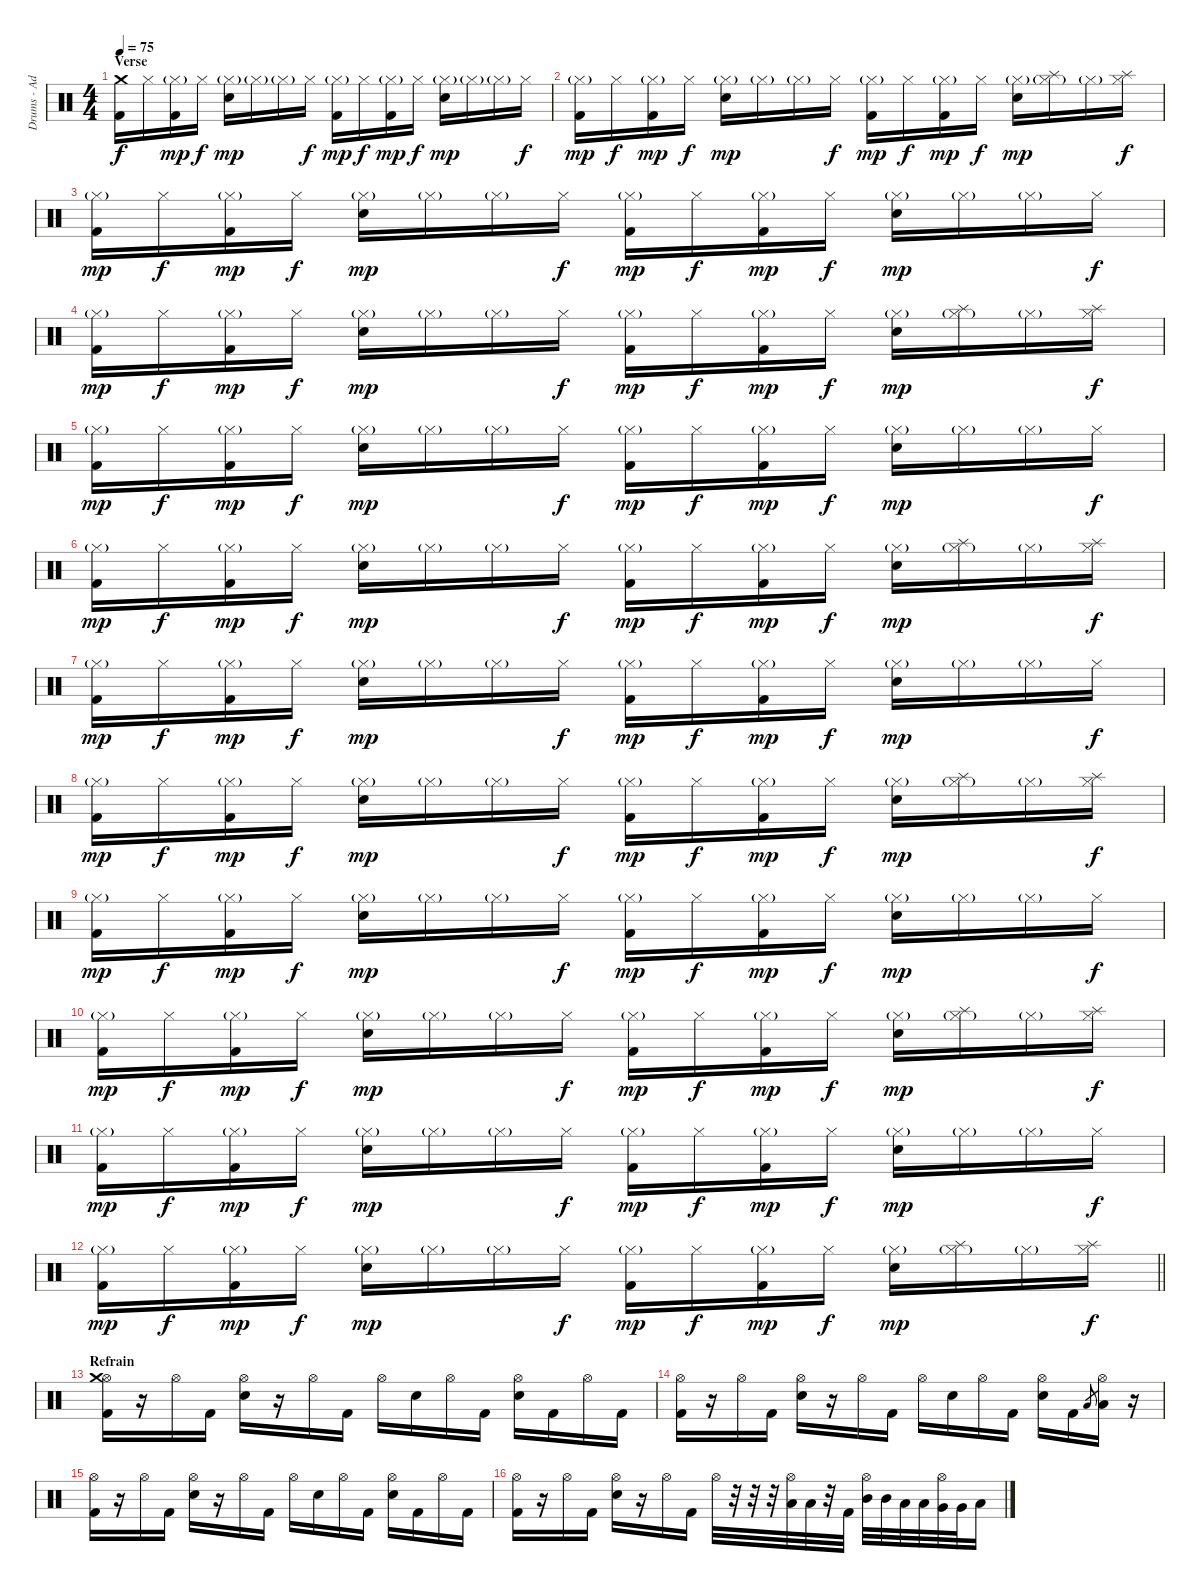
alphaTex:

\track ("Drums - Adrian Robinson" "Drums - Ad") {instrument percussion}
\staff {score}
\articulation defaults
\ts (4 4)
\section ("" "Verse")
\tempo 75
\clef neutral
\ks c
("Crash medium (hit)" "Kick (hit) 2").16{dy f} "Hi-Hat (closed)".16 ("Hi-Hat (closed)"{g} "Kick (hit) 2").16{dy mp} "Hi-Hat (closed)".16{dy f} ("Hi-Hat (closed)"{g} "Electric Snare (hit)").16{dy mp} "Hi-Hat (closed)"{g}.16 "Hi-Hat (closed)"{g}.16 "Hi-Hat (closed)".16{dy f} ("Hi-Hat (closed)"{g} "Kick (hit) 2").16{dy mp} "Hi-Hat (closed)".16{dy f} ("Hi-Hat (closed)"{g} "Kick (hit) 2").16{dy mp} "Hi-Hat (closed)".16{dy f} ("Hi-Hat (closed)"{g} "Electric Snare (hit)").16{dy mp} "Hi-Hat (closed)"{g}.16 "Hi-Hat (closed)"{g}.16 "Hi-Hat (closed)".16{dy f} |
("Hi-Hat (closed)"{g} "Kick (hit) 2").16{dy mp} "Hi-Hat (closed)".16{dy f} ("Hi-Hat (closed)"{g} "Kick (hit) 2").16{dy mp} "Hi-Hat (closed)".16{dy f} ("Hi-Hat (closed)"{g} "Electric Snare (hit)").16{dy mp} "Hi-Hat (closed)"{g}.16 "Hi-Hat (closed)"{g}.16 "Hi-Hat (closed)".16{dy f} ("Hi-Hat (closed)"{g} "Kick (hit) 2").16{dy mp} "Hi-Hat (closed)".16{dy f} ("Hi-Hat (closed)"{g} "Kick (hit) 2").16{dy mp} "Hi-Hat (closed)".16{dy f} ("Hi-Hat (closed)"{g} "Electric Snare (hit)").16{dy mp} ("Hi-Hat (closed)"{g} "Splash (hit)").16 "Hi-Hat (closed)"{g}.16 ("Hi-Hat (closed)" "Splash (hit)").16{dy f} |
("Hi-Hat (closed)"{g} "Kick (hit) 2").16{dy mp} "Hi-Hat (closed)".16{dy f} ("Hi-Hat (closed)"{g} "Kick (hit) 2").16{dy mp} "Hi-Hat (closed)".16{dy f} ("Hi-Hat (closed)"{g} "Electric Snare (hit)").16{dy mp} "Hi-Hat (closed)"{g}.16 "Hi-Hat (closed)"{g}.16 "Hi-Hat (closed)".16{dy f} ("Hi-Hat (closed)"{g} "Kick (hit) 2").16{dy mp} "Hi-Hat (closed)".16{dy f} ("Hi-Hat (closed)"{g} "Kick (hit) 2").16{dy mp} "Hi-Hat (closed)".16{dy f} ("Hi-Hat (closed)"{g} "Electric Snare (hit)").16{dy mp} "Hi-Hat (closed)"{g}.16 "Hi-Hat (closed)"{g}.16 "Hi-Hat (closed)".16{dy f} |
("Hi-Hat (closed)"{g} "Kick (hit) 2").16{dy mp} "Hi-Hat (closed)".16{dy f} ("Hi-Hat (closed)"{g} "Kick (hit) 2").16{dy mp} "Hi-Hat (closed)".16{dy f} ("Hi-Hat (closed)"{g} "Electric Snare (hit)").16{dy mp} "Hi-Hat (closed)"{g}.16 "Hi-Hat (closed)"{g}.16 "Hi-Hat (closed)".16{dy f} ("Hi-Hat (closed)"{g} "Kick (hit) 2").16{dy mp} "Hi-Hat (closed)".16{dy f} ("Hi-Hat (closed)"{g} "Kick (hit) 2").16{dy mp} "Hi-Hat (closed)".16{dy f} ("Hi-Hat (closed)"{g} "Electric Snare (hit)").16{dy mp} ("Hi-Hat (closed)"{g} "Splash (hit)").16 "Hi-Hat (closed)"{g}.16 ("Hi-Hat (closed)" "Splash (hit)").16{dy f} |
("Hi-Hat (closed)"{g} "Kick (hit) 2").16{dy mp} "Hi-Hat (closed)".16{dy f} ("Hi-Hat (closed)"{g} "Kick (hit) 2").16{dy mp} "Hi-Hat (closed)".16{dy f} ("Hi-Hat (closed)"{g} "Electric Snare (hit)").16{dy mp} "Hi-Hat (closed)"{g}.16 "Hi-Hat (closed)"{g}.16 "Hi-Hat (closed)".16{dy f} ("Hi-Hat (closed)"{g} "Kick (hit) 2").16{dy mp} "Hi-Hat (closed)".16{dy f} ("Hi-Hat (closed)"{g} "Kick (hit) 2").16{dy mp} "Hi-Hat (closed)".16{dy f} ("Hi-Hat (closed)"{g} "Electric Snare (hit)").16{dy mp} "Hi-Hat (closed)"{g}.16 "Hi-Hat (closed)"{g}.16 "Hi-Hat (closed)".16{dy f} |
("Hi-Hat (closed)"{g} "Kick (hit) 2").16{dy mp} "Hi-Hat (closed)".16{dy f} ("Hi-Hat (closed)"{g} "Kick (hit) 2").16{dy mp} "Hi-Hat (closed)".16{dy f} ("Hi-Hat (closed)"{g} "Electric Snare (hit)").16{dy mp} "Hi-Hat (closed)"{g}.16 "Hi-Hat (closed)"{g}.16 "Hi-Hat (closed)".16{dy f} ("Hi-Hat (closed)"{g} "Kick (hit) 2").16{dy mp} "Hi-Hat (closed)".16{dy f} ("Hi-Hat (closed)"{g} "Kick (hit) 2").16{dy mp} "Hi-Hat (closed)".16{dy f} ("Hi-Hat (closed)"{g} "Electric Snare (hit)").16{dy mp} ("Hi-Hat (closed)"{g} "Splash (hit)").16 "Hi-Hat (closed)"{g}.16 ("Hi-Hat (closed)" "Splash (hit)").16{dy f} |
("Hi-Hat (closed)"{g} "Kick (hit) 2").16{dy mp} "Hi-Hat (closed)".16{dy f} ("Hi-Hat (closed)"{g} "Kick (hit) 2").16{dy mp} "Hi-Hat (closed)".16{dy f} ("Hi-Hat (closed)"{g} "Electric Snare (hit)").16{dy mp} "Hi-Hat (closed)"{g}.16 "Hi-Hat (closed)"{g}.16 "Hi-Hat (closed)".16{dy f} ("Hi-Hat (closed)"{g} "Kick (hit) 2").16{dy mp} "Hi-Hat (closed)".16{dy f} ("Hi-Hat (closed)"{g} "Kick (hit) 2").16{dy mp} "Hi-Hat (closed)".16{dy f} ("Hi-Hat (closed)"{g} "Electric Snare (hit)").16{dy mp} "Hi-Hat (closed)"{g}.16 "Hi-Hat (closed)"{g}.16 "Hi-Hat (closed)".16{dy f} |
("Hi-Hat (closed)"{g} "Kick (hit) 2").16{dy mp} "Hi-Hat (closed)".16{dy f} ("Hi-Hat (closed)"{g} "Kick (hit) 2").16{dy mp} "Hi-Hat (closed)".16{dy f} ("Hi-Hat (closed)"{g} "Electric Snare (hit)").16{dy mp} "Hi-Hat (closed)"{g}.16 "Hi-Hat (closed)"{g}.16 "Hi-Hat (closed)".16{dy f} ("Hi-Hat (closed)"{g} "Kick (hit) 2").16{dy mp} "Hi-Hat (closed)".16{dy f} ("Hi-Hat (closed)"{g} "Kick (hit) 2").16{dy mp} "Hi-Hat (closed)".16{dy f} ("Hi-Hat (closed)"{g} "Electric Snare (hit)").16{dy mp} ("Hi-Hat (closed)"{g} "Splash (hit)").16 "Hi-Hat (closed)"{g}.16 ("Hi-Hat (closed)" "Splash (hit)").16{dy f} |
("Hi-Hat (closed)"{g} "Kick (hit) 2").16{dy mp} "Hi-Hat (closed)".16{dy f} ("Hi-Hat (closed)"{g} "Kick (hit) 2").16{dy mp} "Hi-Hat (closed)".16{dy f} ("Hi-Hat (closed)"{g} "Electric Snare (hit)").16{dy mp} "Hi-Hat (closed)"{g}.16 "Hi-Hat (closed)"{g}.16 "Hi-Hat (closed)".16{dy f} ("Hi-Hat (closed)"{g} "Kick (hit) 2").16{dy mp} "Hi-Hat (closed)".16{dy f} ("Hi-Hat (closed)"{g} "Kick (hit) 2").16{dy mp} "Hi-Hat (closed)".16{dy f} ("Hi-Hat (closed)"{g} "Electric Snare (hit)").16{dy mp} "Hi-Hat (closed)"{g}.16 "Hi-Hat (closed)"{g}.16 "Hi-Hat (closed)".16{dy f} |
("Hi-Hat (closed)"{g} "Kick (hit) 2").16{dy mp} "Hi-Hat (closed)".16{dy f} ("Hi-Hat (closed)"{g} "Kick (hit) 2").16{dy mp} "Hi-Hat (closed)".16{dy f} ("Hi-Hat (closed)"{g} "Electric Snare (hit)").16{dy mp} "Hi-Hat (closed)"{g}.16 "Hi-Hat (closed)"{g}.16 "Hi-Hat (closed)".16{dy f} ("Hi-Hat (closed)"{g} "Kick (hit) 2").16{dy mp} "Hi-Hat (closed)".16{dy f} ("Hi-Hat (closed)"{g} "Kick (hit) 2").16{dy mp} "Hi-Hat (closed)".16{dy f} ("Hi-Hat (closed)"{g} "Electric Snare (hit)").16{dy mp} ("Hi-Hat (closed)"{g} "Splash (hit)").16 "Hi-Hat (closed)"{g}.16 ("Hi-Hat (closed)" "Splash (hit)").16{dy f} |
("Hi-Hat (closed)"{g} "Kick (hit) 2").16{dy mp} "Hi-Hat (closed)".16{dy f} ("Hi-Hat (closed)"{g} "Kick (hit) 2").16{dy mp} "Hi-Hat (closed)".16{dy f} ("Hi-Hat (closed)"{g} "Electric Snare (hit)").16{dy mp} "Hi-Hat (closed)"{g}.16 "Hi-Hat (closed)"{g}.16 "Hi-Hat (closed)".16{dy f} ("Hi-Hat (closed)"{g} "Kick (hit) 2").16{dy mp} "Hi-Hat (closed)".16{dy f} ("Hi-Hat (closed)"{g} "Kick (hit) 2").16{dy mp} "Hi-Hat (closed)".16{dy f} ("Hi-Hat (closed)"{g} "Electric Snare (hit)").16{dy mp} "Hi-Hat (closed)"{g}.16 "Hi-Hat (closed)"{g}.16 "Hi-Hat (closed)".16{dy f} |
\barLineRight lightlight
("Hi-Hat (closed)"{g} "Kick (hit) 2").16{dy mp} "Hi-Hat (closed)".16{dy f} ("Hi-Hat (closed)"{g} "Kick (hit) 2").16{dy mp} "Hi-Hat (closed)".16{dy f} ("Hi-Hat (closed)"{g} "Electric Snare (hit)").16{dy mp} "Hi-Hat (closed)"{g}.16 "Hi-Hat (closed)"{g}.16 "Hi-Hat (closed)".16{dy f} ("Hi-Hat (closed)"{g} "Kick (hit) 2").16{dy mp} "Hi-Hat (closed)".16{dy f} ("Hi-Hat (closed)"{g} "Kick (hit) 2").16{dy mp} "Hi-Hat (closed)".16{dy f} ("Hi-Hat (closed)"{g} "Electric Snare (hit)").16{dy mp} ("Hi-Hat (closed)"{g} "Splash (hit)").16 "Hi-Hat (closed)"{g}.16 ("Hi-Hat (closed)" "Splash (hit)").16{dy f} |
\section ("" "Refrain")
("Hi-Hat (open)" "Crash medium (hit)" "Kick (hit) 2").16 r.16 "Hi-Hat (open)".16 "Kick (hit) 2".16 ("Hi-Hat (open)" "Electric Snare (hit)").16 r.16 "Hi-Hat (open)".16 "Kick (hit) 2".16 "Hi-Hat (open)".16 "Electric Snare (hit)".16 "Hi-Hat (open)".16 "Kick (hit) 2".16 ("Hi-Hat (open)" "Electric Snare (hit)").16 "Kick (hit) 2".16 "Hi-Hat (open)".16 "Kick (hit) 2".16 |
("Hi-Hat (open)" "Kick (hit) 2").16 r.16 "Hi-Hat (open)".16 "Kick (hit) 2".16 ("Hi-Hat (open)" "Electric Snare (hit)").16 r.16 "Hi-Hat (open)".16 "Kick (hit) 2".16 "Hi-Hat (open)".16 "Electric Snare (hit)".16 "Hi-Hat (open)".16 "Kick (hit) 2".16 ("Hi-Hat (open)" "Electric Snare (hit)").16 "Kick (hit) 2".16 "Low Floor Tom (hit)".8{gr} ("Hi-Hat (open)" "Low Floor Tom (hit)").16 r.16 |
("Hi-Hat (open)" "Kick (hit) 2").16 r.16 "Hi-Hat (open)".16 "Kick (hit) 2".16 ("Hi-Hat (open)" "Electric Snare (hit)").16 r.16 "Hi-Hat (open)".16 "Kick (hit) 2".16 "Hi-Hat (open)".16 "Electric Snare (hit)".16 "Hi-Hat (open)".16 "Kick (hit) 2".16 ("Hi-Hat (open)" "Electric Snare (hit)").16 "Kick (hit) 2".16 "Hi-Hat (open)".16 "Kick (hit) 2".16 |
("Hi-Hat (open)" "Kick (hit) 2").16 r.16 "Hi-Hat (open)".16 "Kick (hit) 2".16 ("Hi-Hat (open)" "Electric Snare (hit)").16 r.16 "Hi-Hat (open)".16 "Kick (hit) 2".16 "Hi-Hat (open)".32 r.32 r.32 r.32 ("Hi-Hat (open)" "Low Tom (hit)").32 "Low Tom (hit)".32 r.32 "Kick (hit) 2".32 ("Hi-Hat (open)" "Mid Tom (hit)").32 "Mid Tom (hit)".32 "Low Tom (hit)".32 "Low Tom (hit)".32 ("Hi-Hat (open)" "Very Low Tom (hit)").32 "Very Low Tom (hit)".32 "Low Floor Tom (hit)".16
